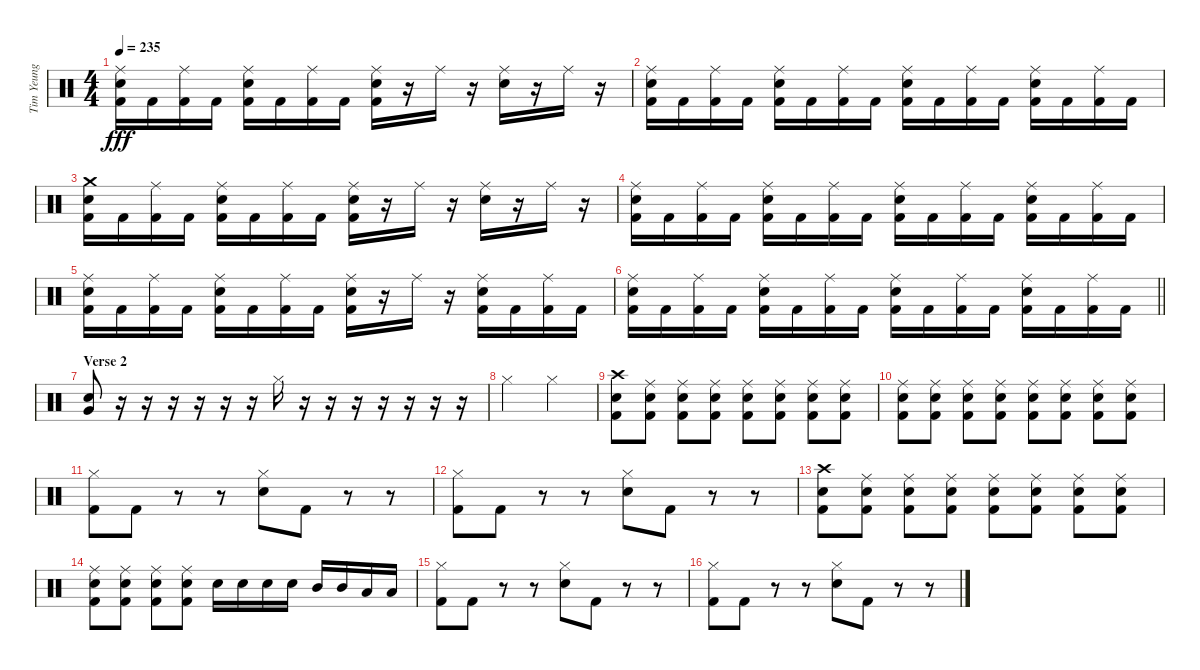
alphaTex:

\track ("Tim Yeung" "Tim Yeung") {instrument percussion}
\staff {score}
\articulation defaults
\ts (4 4)
\tempo 235
\clef neutral
\ks c
("Ride (middle)" "Electric Snare (hit)" "Kick (hit) 2").16{dy fff} "Kick (hit) 2".16 ("Ride (middle)" "Kick (hit) 2").16 "Kick (hit) 2".16 ("Ride (middle)" "Electric Snare (hit)" "Kick (hit) 2").16 "Kick (hit) 2".16 ("Ride (middle)" "Kick (hit) 2").16 "Kick (hit) 2".16 ("Ride (middle)" "Electric Snare (hit)" "Kick (hit) 2").16 r.16 "Ride (middle)".16 r.16 ("Ride (middle)" "Electric Snare (hit)").16 r.16 "Ride (middle)".16 r.16 |
("Ride (middle)" "Electric Snare (hit)" "Kick (hit) 2").16 "Kick (hit) 2".16 ("Ride (middle)" "Kick (hit) 2").16 "Kick (hit) 2".16 ("Ride (middle)" "Electric Snare (hit)" "Kick (hit) 2").16 "Kick (hit) 2".16 ("Ride (middle)" "Kick (hit) 2").16 "Kick (hit) 2".16 ("Ride (middle)" "Electric Snare (hit)" "Kick (hit) 2").16 "Kick (hit) 2".16 ("Ride (middle)" "Kick (hit) 2").16 "Kick (hit) 2".16 ("Ride (middle)" "Electric Snare (hit)" "Kick (hit) 2").16 "Kick (hit) 2".16 ("Ride (middle)" "Kick (hit) 2").16 "Kick (hit) 2".16 |
("Crash medium (hit)" "Electric Snare (hit)" "Kick (hit) 2").16 "Kick (hit) 2".16 ("Ride (middle)" "Kick (hit) 2").16 "Kick (hit) 2".16 ("Ride (middle)" "Electric Snare (hit)" "Kick (hit) 2").16 "Kick (hit) 2".16 ("Ride (middle)" "Kick (hit) 2").16 "Kick (hit) 2".16 ("Ride (middle)" "Electric Snare (hit)" "Kick (hit) 2").16 r.16 "Ride (middle)".16 r.16 ("Ride (middle)" "Electric Snare (hit)").16 r.16 "Ride (middle)".16 r.16 |
("Ride (middle)" "Electric Snare (hit)" "Kick (hit) 2").16 "Kick (hit) 2".16 ("Ride (middle)" "Kick (hit) 2").16 "Kick (hit) 2".16 ("Ride (middle)" "Electric Snare (hit)" "Kick (hit) 2").16 "Kick (hit) 2".16 ("Ride (middle)" "Kick (hit) 2").16 "Kick (hit) 2".16 ("Ride (middle)" "Electric Snare (hit)" "Kick (hit) 2").16 "Kick (hit) 2".16 ("Ride (middle)" "Kick (hit) 2").16 "Kick (hit) 2".16 ("Ride (middle)" "Electric Snare (hit)" "Kick (hit) 2").16 "Kick (hit) 2".16 ("Ride (middle)" "Kick (hit) 2").16 "Kick (hit) 2".16 |
("Ride (middle)" "Electric Snare (hit)" "Kick (hit) 2").16 "Kick (hit) 2".16 ("Ride (middle)" "Kick (hit) 2").16 "Kick (hit) 2".16 ("Ride (middle)" "Electric Snare (hit)" "Kick (hit) 2").16 "Kick (hit) 2".16 ("Ride (middle)" "Kick (hit) 2").16 "Kick (hit) 2".16 ("Ride (middle)" "Electric Snare (hit)" "Kick (hit) 2").16 r.16 "Ride (middle)".16 r.16 ("Ride (middle)" "Electric Snare (hit)" "Kick (hit) 2").16 "Kick (hit) 2".16 ("Ride (middle)" "Kick (hit) 2").16 "Kick (hit) 2".16 |
\barLineRight lightlight
("Ride (middle)" "Electric Snare (hit)" "Kick (hit) 2").16 "Kick (hit) 2".16 ("Ride (middle)" "Kick (hit) 2").16 "Kick (hit) 2".16 ("Ride (middle)" "Electric Snare (hit)" "Kick (hit) 2").16 "Kick (hit) 2".16 ("Ride (middle)" "Kick (hit) 2").16 "Kick (hit) 2".16 ("Ride (middle)" "Electric Snare (hit)" "Kick (hit) 2").16 "Kick (hit) 2".16 ("Ride (middle)" "Kick (hit) 2").16 "Kick (hit) 2".16 ("Ride (middle)" "Electric Snare (hit)" "Kick (hit) 2").16 "Kick (hit) 2".16 ("Ride (middle)" "Kick (hit) 2").16 "Kick (hit) 2".16 |
\section ("" "Verse 2")
("Electric Snare (hit)" "Very Low Tom (hit)").8 r.16 r.16 r.16 r.16 r.16 r.16 "Hi-Hat (closed)".16 r.16 r.16 r.16 r.16 r.16 r.16 r.16 |
"Hi-Hat (closed)".2 "Hi-Hat (closed)".2 |
("Crash high (hit)" "Electric Snare (hit)" "Kick (hit) 2").8 ("Ride (middle)" "Electric Snare (hit)" "Kick (hit) 2").8 ("Ride (middle)" "Electric Snare (hit)" "Kick (hit) 2").8 ("Ride (middle)" "Electric Snare (hit)" "Kick (hit) 2").8 ("Ride (middle)" "Electric Snare (hit)" "Kick (hit) 2").8 ("Ride (middle)" "Electric Snare (hit)" "Kick (hit) 2").8 ("Ride (middle)" "Electric Snare (hit)" "Kick (hit) 2").8 ("Ride (middle)" "Electric Snare (hit)" "Kick (hit) 2").8 |
("Ride (middle)" "Electric Snare (hit)" "Kick (hit) 2").8 ("Ride (middle)" "Electric Snare (hit)" "Kick (hit) 2").8 ("Ride (middle)" "Electric Snare (hit)" "Kick (hit) 2").8 ("Ride (middle)" "Electric Snare (hit)" "Kick (hit) 2").8 ("Ride (middle)" "Electric Snare (hit)" "Kick (hit) 2").8 ("Ride (middle)" "Electric Snare (hit)" "Kick (hit) 2").8 ("Ride (middle)" "Electric Snare (hit)" "Kick (hit) 2").8 ("Ride (middle)" "Electric Snare (hit)" "Kick (hit) 2").8 |
("Hi-Hat (closed)" "Kick (hit) 2").8 "Kick (hit) 2".8 r.8 r.8 ("Hi-Hat (closed)" "Electric Snare (hit)").8 "Kick (hit) 2".8 r.8 r.8 |
("Hi-Hat (closed)" "Kick (hit) 2").8 "Kick (hit) 2".8 r.8 r.8 ("Hi-Hat (closed)" "Electric Snare (hit)").8 "Kick (hit) 2".8 r.8 r.8 |
("Crash high (hit)" "Electric Snare (hit)" "Kick (hit) 2").8 ("Ride (middle)" "Electric Snare (hit)" "Kick (hit) 2").8 ("Ride (middle)" "Electric Snare (hit)" "Kick (hit) 2").8 ("Ride (middle)" "Electric Snare (hit)" "Kick (hit) 2").8 ("Ride (middle)" "Electric Snare (hit)" "Kick (hit) 2").8 ("Ride (middle)" "Electric Snare (hit)" "Kick (hit) 2").8 ("Ride (middle)" "Electric Snare (hit)" "Kick (hit) 2").8 ("Ride (middle)" "Electric Snare (hit)" "Kick (hit) 2").8 |
("Ride (middle)" "Electric Snare (hit)" "Kick (hit) 2").8 ("Ride (middle)" "Electric Snare (hit)" "Kick (hit) 2").8 ("Ride (middle)" "Electric Snare (hit)" "Kick (hit) 2").8 ("Ride (middle)" "Electric Snare (hit)" "Kick (hit) 2").8 "Electric Snare (hit)".16 "Electric Snare (hit)".16 "Electric Snare (hit)".16 "Electric Snare (hit)".16 "Mid Tom (hit)".16 "Mid Tom (hit)".16 "Low Tom (hit)".16 "Low Tom (hit)".16 |
("Hi-Hat (closed)" "Kick (hit) 2").8 "Kick (hit) 2".8 r.8 r.8 ("Hi-Hat (closed)" "Electric Snare (hit)").8 "Kick (hit) 2".8 r.8 r.8 |
("Hi-Hat (closed)" "Kick (hit) 2").8 "Kick (hit) 2".8 r.8 r.8 ("Hi-Hat (closed)" "Electric Snare (hit)").8 "Kick (hit) 2".8 r.8 r.8
